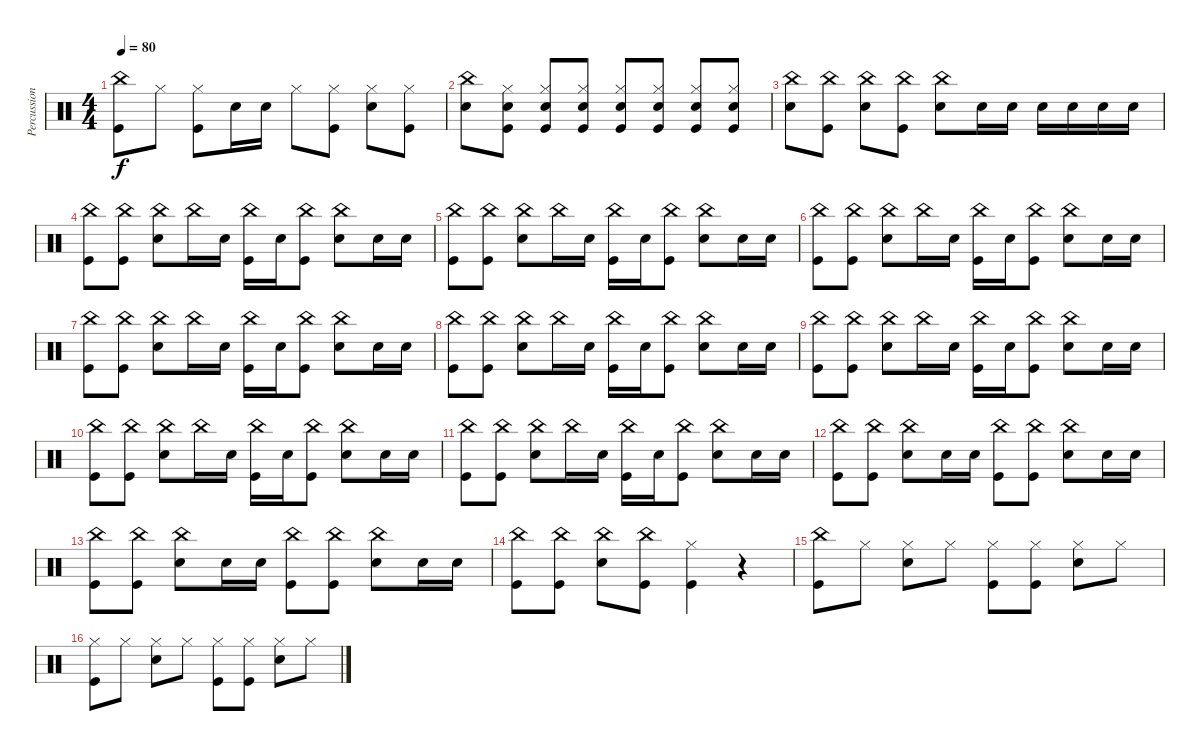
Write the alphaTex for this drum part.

\track ("Percussions" "Percussion") {instrument percussion}
\staff {score}
\articulation defaults
\ts (4 4)
\tempo 80
\clef neutral
\ks c
("China (hit)" "Kick (hit)").8{dy f} "Hi-Hat (closed)".8 ("Hi-Hat (closed)" "Kick (hit)").8 "Snare (hit) 2".16 "Snare (hit) 2".16 "Hi-Hat (closed)".8 ("Hi-Hat (closed)" "Kick (hit)").8 ("Hi-Hat (closed)" "Snare (hit) 2").8 ("Hi-Hat (closed)" "Kick (hit)").8 |
("China (hit)" "Snare (hit) 2").8 ("Hi-Hat (closed)" "Snare (hit) 2" "Kick (hit)").8 ("Hi-Hat (closed)" "Snare (hit) 2" "Kick (hit)").8 ("Hi-Hat (closed)" "Snare (hit) 2" "Kick (hit)").8 ("Hi-Hat (closed)" "Snare (hit) 2" "Kick (hit)").8 ("Hi-Hat (closed)" "Snare (hit) 2" "Kick (hit)").8 ("Hi-Hat (closed)" "Snare (hit) 2" "Kick (hit)").8 ("Hi-Hat (closed)" "Snare (hit) 2" "Kick (hit)").8 |
("China (hit)" "Snare (hit) 2").8 ("China (hit)" "Kick (hit)").8 ("China (hit)" "Snare (hit) 2").8 ("China (hit)" "Kick (hit)").8 ("China (hit)" "Snare (hit) 2").8 "Snare (hit) 2".16 "Snare (hit) 2".16 "Snare (hit) 2".16 "Snare (hit) 2".16 "Snare (hit) 2".16 "Snare (hit) 2".16 |
("China (hit)" "Kick (hit)").8 ("China (hit)" "Kick (hit)").8 ("China (hit)" "Snare (hit) 2").8 "China (hit)".16 "Snare (hit) 2".16 ("China (hit)" "Kick (hit)").16 "Snare (hit) 2".16 ("China (hit)" "Kick (hit)").8 ("China (hit)" "Snare (hit) 2").8 "Snare (hit) 2".16 "Snare (hit) 2".16 |
("China (hit)" "Kick (hit)").8 ("China (hit)" "Kick (hit)").8 ("China (hit)" "Snare (hit) 2").8 "China (hit)".16 "Snare (hit) 2".16 ("China (hit)" "Kick (hit)").16 "Snare (hit) 2".16 ("China (hit)" "Kick (hit)").8 ("China (hit)" "Snare (hit) 2").8 "Snare (hit) 2".16 "Snare (hit) 2".16 |
("China (hit)" "Kick (hit)").8 ("China (hit)" "Kick (hit)").8 ("China (hit)" "Snare (hit) 2").8 "China (hit)".16 "Snare (hit) 2".16 ("China (hit)" "Kick (hit)").16 "Snare (hit) 2".16 ("China (hit)" "Kick (hit)").8 ("China (hit)" "Snare (hit) 2").8 "Snare (hit) 2".16 "Snare (hit) 2".16 |
("China (hit)" "Kick (hit)").8 ("China (hit)" "Kick (hit)").8 ("China (hit)" "Snare (hit) 2").8 "China (hit)".16 "Snare (hit) 2".16 ("China (hit)" "Kick (hit)").16 "Snare (hit) 2".16 ("China (hit)" "Kick (hit)").8 ("China (hit)" "Snare (hit) 2").8 "Snare (hit) 2".16 "Snare (hit) 2".16 |
("China (hit)" "Kick (hit)").8 ("China (hit)" "Kick (hit)").8 ("China (hit)" "Snare (hit) 2").8 "China (hit)".16 "Snare (hit) 2".16 ("China (hit)" "Kick (hit)").16 "Snare (hit) 2".16 ("China (hit)" "Kick (hit)").8 ("China (hit)" "Snare (hit) 2").8 "Snare (hit) 2".16 "Snare (hit) 2".16 |
("China (hit)" "Kick (hit)").8 ("China (hit)" "Kick (hit)").8 ("China (hit)" "Snare (hit) 2").8 "China (hit)".16 "Snare (hit) 2".16 ("China (hit)" "Kick (hit)").16 "Snare (hit) 2".16 ("China (hit)" "Kick (hit)").8 ("China (hit)" "Snare (hit) 2").8 "Snare (hit) 2".16 "Snare (hit) 2".16 |
("China (hit)" "Kick (hit)").8 ("China (hit)" "Kick (hit)").8 ("China (hit)" "Snare (hit) 2").8 "China (hit)".16 "Snare (hit) 2".16 ("China (hit)" "Kick (hit)").16 "Snare (hit) 2".16 ("China (hit)" "Kick (hit)").8 ("China (hit)" "Snare (hit) 2").8 "Snare (hit) 2".16 "Snare (hit) 2".16 |
("China (hit)" "Kick (hit)").8 ("China (hit)" "Kick (hit)").8 ("China (hit)" "Snare (hit) 2").8 "China (hit)".16 "Snare (hit) 2".16 ("China (hit)" "Kick (hit)").16 "Snare (hit) 2".16 ("China (hit)" "Kick (hit)").8 ("China (hit)" "Snare (hit) 2").8 "Snare (hit) 2".16 "Snare (hit) 2".16 |
("China (hit)" "Kick (hit)").8 ("China (hit)" "Kick (hit)").8 ("China (hit)" "Snare (hit) 2").8 "Snare (hit) 2".16 "Snare (hit) 2".16 ("China (hit)" "Kick (hit)").8 ("China (hit)" "Kick (hit)").8 ("China (hit)" "Snare (hit) 2").8 "Snare (hit) 2".16 "Snare (hit) 2".16 |
("China (hit)" "Kick (hit)").8 ("China (hit)" "Kick (hit)").8 ("China (hit)" "Snare (hit) 2").8 "Snare (hit) 2".16 "Snare (hit) 2".16 ("China (hit)" "Kick (hit)").8 ("China (hit)" "Kick (hit)").8 ("China (hit)" "Snare (hit) 2").8 "Snare (hit) 2".16 "Snare (hit) 2".16 |
("China (hit)" "Kick (hit)").8 ("China (hit)" "Kick (hit)").8 ("China (hit)" "Snare (hit) 2").8 ("China (hit)" "Kick (hit)").8 ("Hi-Hat (closed)" "Kick (hit)").4 r.4 |
("China (hit)" "Kick (hit)").8 "Hi-Hat (closed)".8 ("Hi-Hat (closed)" "Snare (hit) 2").8 "Hi-Hat (closed)".8 ("Hi-Hat (closed)" "Kick (hit)").8 ("Hi-Hat (closed)" "Kick (hit)").8 ("Hi-Hat (closed)" "Snare (hit) 2").8 "Hi-Hat (closed)".8 |
("Hi-Hat (closed)" "Kick (hit)").8 "Hi-Hat (closed)".8 ("Hi-Hat (closed)" "Snare (hit) 2").8 "Hi-Hat (closed)".8 ("Hi-Hat (closed)" "Kick (hit)").8 ("Hi-Hat (closed)" "Kick (hit)").8 ("Hi-Hat (closed)" "Snare (hit) 2").8 "Hi-Hat (closed)".8
